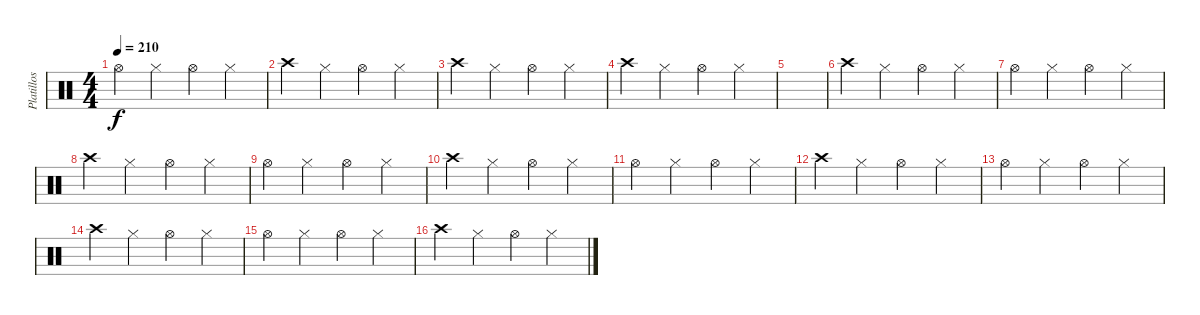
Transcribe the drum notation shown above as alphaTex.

\track ("Platillos (Leo)" "Platillos ") {instrument percussion}
\staff {score}
\articulation defaults
\ts (4 4)
\tempo 210
\clef neutral
\ks c "Hi-Hat (open)".4{dy f} "Hi-Hat (closed)".4 "Hi-Hat (open)".4 "Hi-Hat (closed)".4
|
"Crash high (hit)".4 "Hi-Hat (closed)".4 "Hi-Hat (open)".4 "Hi-Hat (closed)".4 |
"Crash high (hit)".4 "Hi-Hat (closed)".4 "Hi-Hat (open)".4 "Hi-Hat (closed)".4 |
"Crash high (hit)".4 "Hi-Hat (closed)".4 "Hi-Hat (open)".4 "Hi-Hat (closed)".4 |
|
"Crash high (hit)".4 "Hi-Hat (closed)".4 "Hi-Hat (open)".4 "Hi-Hat (closed)".4 |
"Hi-Hat (open)".4 "Hi-Hat (closed)".4 "Hi-Hat (open)".4 "Hi-Hat (closed)".4 |
"Crash high (hit)".4 "Hi-Hat (closed)".4 "Hi-Hat (open)".4 "Hi-Hat (closed)".4 |
"Hi-Hat (open)".4 "Hi-Hat (closed)".4 "Hi-Hat (open)".4 "Hi-Hat (closed)".4 |
"Crash high (hit)".4 "Hi-Hat (closed)".4 "Hi-Hat (open)".4 "Hi-Hat (closed)".4 |
"Hi-Hat (open)".4 "Hi-Hat (closed)".4 "Hi-Hat (open)".4 "Hi-Hat (closed)".4 |
"Crash high (hit)".4 "Hi-Hat (closed)".4 "Hi-Hat (open)".4 "Hi-Hat (closed)".4 |
"Hi-Hat (open)".4 "Hi-Hat (closed)".4 "Hi-Hat (open)".4 "Hi-Hat (closed)".4 |
"Crash high (hit)".4 "Hi-Hat (closed)".4 "Hi-Hat (open)".4 "Hi-Hat (closed)".4 |
"Hi-Hat (open)".4 "Hi-Hat (closed)".4 "Hi-Hat (open)".4 "Hi-Hat (closed)".4 |
"Crash high (hit)".4 "Hi-Hat (closed)".4 "Hi-Hat (open)".4 "Hi-Hat (closed)".4
